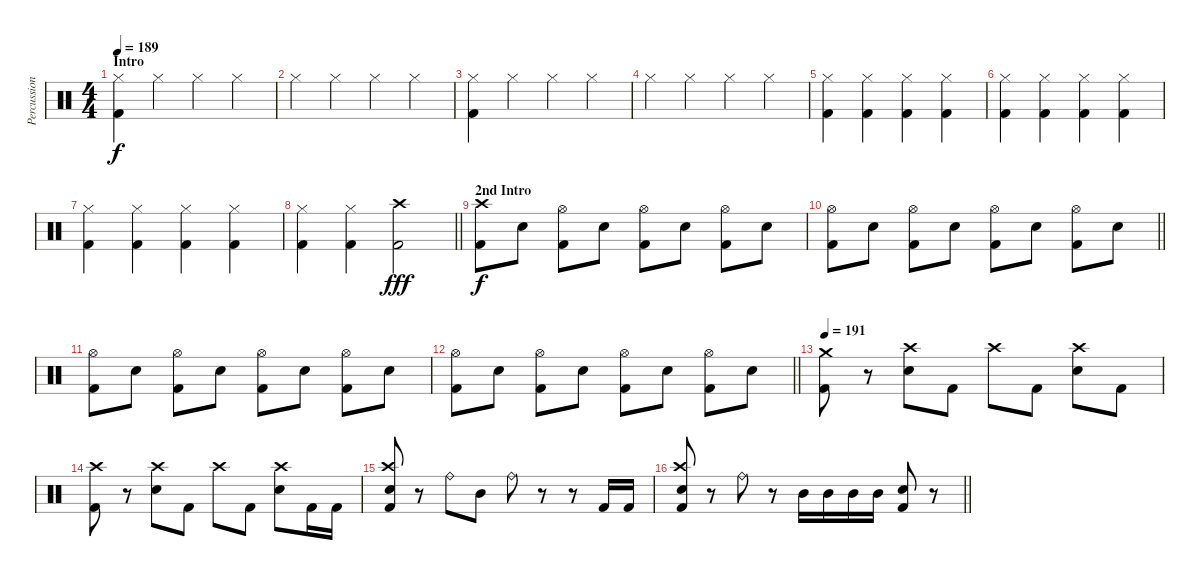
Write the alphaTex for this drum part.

\track ("Percussion" "Percussion") {instrument percussion}
\staff {score}
\articulation defaults
\ts (4 4)
\section ("" "Intro ")
\tempo 189
\clef neutral
\ks c
("Hi-Hat (closed)" "Kick (hit) 2").4{dy f} "Hi-Hat (closed)".4 "Hi-Hat (closed)".4 "Hi-Hat (closed)".4 |
"Hi-Hat (closed)".4 "Hi-Hat (closed)".4 "Hi-Hat (closed)".4 "Hi-Hat (closed)".4 |
("Hi-Hat (closed)" "Kick (hit) 2").4 "Hi-Hat (closed)".4 "Hi-Hat (closed)".4 "Hi-Hat (closed)".4 |
"Hi-Hat (closed)".4 "Hi-Hat (closed)".4 "Hi-Hat (closed)".4 "Hi-Hat (closed)".4 |
("Hi-Hat (closed)" "Kick (hit) 2").4 ("Hi-Hat (closed)" "Kick (hit) 2").4 ("Hi-Hat (closed)" "Kick (hit) 2").4 ("Hi-Hat (closed)" "Kick (hit) 2").4 |
("Hi-Hat (closed)" "Kick (hit) 2").4 ("Hi-Hat (closed)" "Kick (hit) 2").4 ("Hi-Hat (closed)" "Kick (hit) 2").4 ("Hi-Hat (closed)" "Kick (hit) 2").4 |
("Hi-Hat (closed)" "Kick (hit) 2").4 ("Hi-Hat (closed)" "Kick (hit) 2").4 ("Hi-Hat (closed)" "Kick (hit) 2").4 ("Hi-Hat (closed)" "Kick (hit) 2").4 |
\barLineRight lightlight
("Hi-Hat (closed)" "Kick (hit) 2").4 ("Hi-Hat (closed)" "Kick (hit) 2").4 ("Crash high (hit)" "Kick (hit) 2").2{dy fff} |
\section ("" "2nd Intro")
("Crash high (hit)" "Kick (hit) 2").8{dy f} "Electric Snare (hit)".8 ("Hi-Hat (open)" "Kick (hit) 2").8 "Electric Snare (hit)".8 ("Hi-Hat (open)" "Kick (hit) 2").8 "Electric Snare (hit)".8 ("Hi-Hat (open)" "Kick (hit) 2").8 "Electric Snare (hit)".8 |
\barLineRight lightlight
("Hi-Hat (open)" "Kick (hit) 2").8 "Electric Snare (hit)".8 ("Hi-Hat (open)" "Kick (hit) 2").8 "Electric Snare (hit)".8 ("Hi-Hat (open)" "Kick (hit) 2").8 "Electric Snare (hit)".8 ("Hi-Hat (open)" "Kick (hit) 2").8 "Electric Snare (hit)".8 |
\section ("" "")
("Hi-Hat (open)" "Kick (hit) 2").8 "Electric Snare (hit)".8 ("Hi-Hat (open)" "Kick (hit) 2").8 "Electric Snare (hit)".8 ("Hi-Hat (open)" "Kick (hit) 2").8 "Electric Snare (hit)".8 ("Hi-Hat (open)" "Kick (hit) 2").8 "Electric Snare (hit)".8 |
\barLineRight lightlight
("Hi-Hat (open)" "Kick (hit) 2").8 "Electric Snare (hit)".8 ("Hi-Hat (open)" "Kick (hit) 2").8 "Electric Snare (hit)".8 ("Hi-Hat (open)" "Kick (hit) 2").8 "Electric Snare (hit)".8 ("Hi-Hat (open)" "Kick (hit) 2").8 "Electric Snare (hit)".8 |
\tempo 191
("Crash medium (hit)" "Kick (hit) 2").8 r.8 ("Crash high (hit)" "Electric Snare (hit)").8 "Kick (hit) 2".8 "Crash high (hit)".8 "Kick (hit) 2".8 ("Crash high (hit)" "Electric Snare (hit)").8 "Kick (hit) 2".8 |
("Crash high (hit)" "Kick (hit) 2").8 r.8 ("Crash high (hit)" "Electric Snare (hit)").8 "Kick (hit) 2".8 "Crash high (hit)".8 "Kick (hit) 2".8 ("Crash high (hit)" "Electric Snare (hit)").8 "Kick (hit) 2".16 "Kick (hit) 2".16 |
("Crash high (hit)" "Electric Snare (hit)" "Kick (hit) 2").8 r.8 "Ride (bell)".8 "Mid Tom (hit)".8 "Ride (bell)".8 r.8 r.8 "Kick (hit) 2".16 "Kick (hit) 2".16 |
\barLineRight lightlight
("Crash high (hit)" "Electric Snare (hit)" "Kick (hit) 2").8 r.8 "Ride (bell)".8 r.8 "Mid Tom (hit)".16 "Mid Tom (hit)".16 "Mid Tom (hit)".16 "Mid Tom (hit)".16 ("Electric Snare (hit)" "Kick (hit) 2").8 r.8
